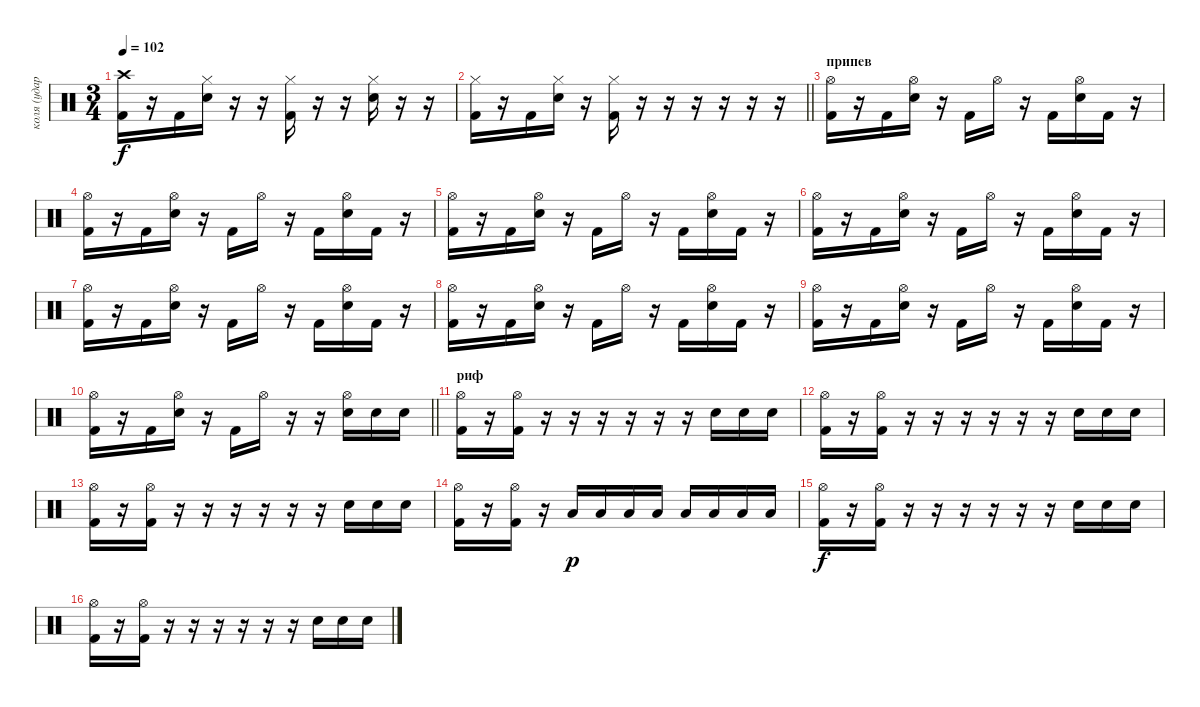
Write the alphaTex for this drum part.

\track ("коля (ударные)" "коля (удар") {instrument percussion}
\staff {score}
\articulation defaults
\ts (3 4)
\tempo 102
\clef neutral
\ks c
("Kick (hit) 2" "Crash high (hit)").16{dy f} r.16 "Kick (hit) 2".16 ("Snare (hit) 2" "Hi-Hat (closed)").16 r.16 r.16 ("Kick (hit) 2" "Hi-Hat (closed)").16 r.16 r.16 ("Snare (hit) 2" "Hi-Hat (closed)").16 r.16 r.16 |
\barLineRight lightlight
("Kick (hit) 2" "Hi-Hat (closed)").16 r.16 "Kick (hit) 2".16 ("Snare (hit) 2" "Hi-Hat (closed)").16 r.16 ("Kick (hit) 2" "Hi-Hat (closed)").16 r.16 r.16 r.16 r.16 r.16 r.16 |
\section ("" "припев")
("Kick (hit) 2" "Hi-Hat (open)").16 r.16 "Kick (hit) 2".16 ("Snare (hit) 2" "Hi-Hat (open)").16 r.16 "Kick (hit) 2".16 "Hi-Hat (open)".16 r.16 "Kick (hit) 2".16 ("Snare (hit) 2" "Hi-Hat (open)").16 "Kick (hit) 2".16 r.16 |
("Kick (hit) 2" "Hi-Hat (open)").16 r.16 "Kick (hit) 2".16 ("Snare (hit) 2" "Hi-Hat (open)").16 r.16 "Kick (hit) 2".16 "Hi-Hat (open)".16 r.16 "Kick (hit) 2".16 ("Snare (hit) 2" "Hi-Hat (open)").16 "Kick (hit) 2".16 r.16 |
("Kick (hit) 2" "Hi-Hat (open)").16 r.16 "Kick (hit) 2".16 ("Snare (hit) 2" "Hi-Hat (open)").16 r.16 "Kick (hit) 2".16 "Hi-Hat (open)".16 r.16 "Kick (hit) 2".16 ("Snare (hit) 2" "Hi-Hat (open)").16 "Kick (hit) 2".16 r.16 |
("Kick (hit) 2" "Hi-Hat (open)").16 r.16 "Kick (hit) 2".16 ("Snare (hit) 2" "Hi-Hat (open)").16 r.16 "Kick (hit) 2".16 "Hi-Hat (open)".16 r.16 "Kick (hit) 2".16 ("Snare (hit) 2" "Hi-Hat (open)").16 "Kick (hit) 2".16 r.16 |
("Kick (hit) 2" "Hi-Hat (open)").16 r.16 "Kick (hit) 2".16 ("Snare (hit) 2" "Hi-Hat (open)").16 r.16 "Kick (hit) 2".16 "Hi-Hat (open)".16 r.16 "Kick (hit) 2".16 ("Snare (hit) 2" "Hi-Hat (open)").16 "Kick (hit) 2".16 r.16 |
("Kick (hit) 2" "Hi-Hat (open)").16 r.16 "Kick (hit) 2".16 ("Snare (hit) 2" "Hi-Hat (open)").16 r.16 "Kick (hit) 2".16 "Hi-Hat (open)".16 r.16 "Kick (hit) 2".16 ("Snare (hit) 2" "Hi-Hat (open)").16 "Kick (hit) 2".16 r.16 |
("Kick (hit) 2" "Hi-Hat (open)").16 r.16 "Kick (hit) 2".16 ("Snare (hit) 2" "Hi-Hat (open)").16 r.16 "Kick (hit) 2".16 "Hi-Hat (open)".16 r.16 "Kick (hit) 2".16 ("Snare (hit) 2" "Hi-Hat (open)").16 "Kick (hit) 2".16 r.16 |
\barLineRight lightlight
("Kick (hit) 2" "Hi-Hat (open)").16 r.16 "Kick (hit) 2".16 ("Snare (hit) 2" "Hi-Hat (open)").16 r.16 "Kick (hit) 2".16 "Hi-Hat (open)".16 r.16 r.16 ("Snare (hit) 2" "Hi-Hat (open)").16 "Snare (hit) 2".16 "Snare (hit) 2".16 |
\section ("" "риф")
("Kick (hit) 2" "Hi-Hat (open)").16 r.16 ("Kick (hit) 2" "Hi-Hat (open)").16 r.16 r.16 r.16 r.16 r.16 r.16 "Snare (hit) 2".16 "Snare (hit) 2".16 "Snare (hit) 2".16 |
("Kick (hit) 2" "Hi-Hat (open)").16 r.16 ("Kick (hit) 2" "Hi-Hat (open)").16 r.16 r.16 r.16 r.16 r.16 r.16 "Snare (hit) 2".16 "Snare (hit) 2".16 "Snare (hit) 2".16 |
("Kick (hit) 2" "Hi-Hat (open)").16 r.16 ("Kick (hit) 2" "Hi-Hat (open)").16 r.16 r.16 r.16 r.16 r.16 r.16 "Snare (hit) 2".16 "Snare (hit) 2".16 "Snare (hit) 2".16 |
("Kick (hit) 2" "Hi-Hat (open)").16 r.16 ("Kick (hit) 2" "Hi-Hat (open)").16 r.16 "Low Floor Tom (hit)".16{dy p} "Low Floor Tom (hit)".16 "Low Floor Tom (hit)".16 "Low Floor Tom (hit)".16 "Low Floor Tom (hit)".16 "Low Floor Tom (hit)".16 "Low Floor Tom (hit)".16 "Low Floor Tom (hit)".16 |
("Kick (hit) 2" "Hi-Hat (open)").16{dy f} r.16 ("Kick (hit) 2" "Hi-Hat (open)").16 r.16 r.16 r.16 r.16 r.16 r.16 "Snare (hit) 2".16 "Snare (hit) 2".16 "Snare (hit) 2".16 |
("Kick (hit) 2" "Hi-Hat (open)").16 r.16 ("Kick (hit) 2" "Hi-Hat (open)").16 r.16 r.16 r.16 r.16 r.16 r.16 "Snare (hit) 2".16 "Snare (hit) 2".16 "Snare (hit) 2".16
